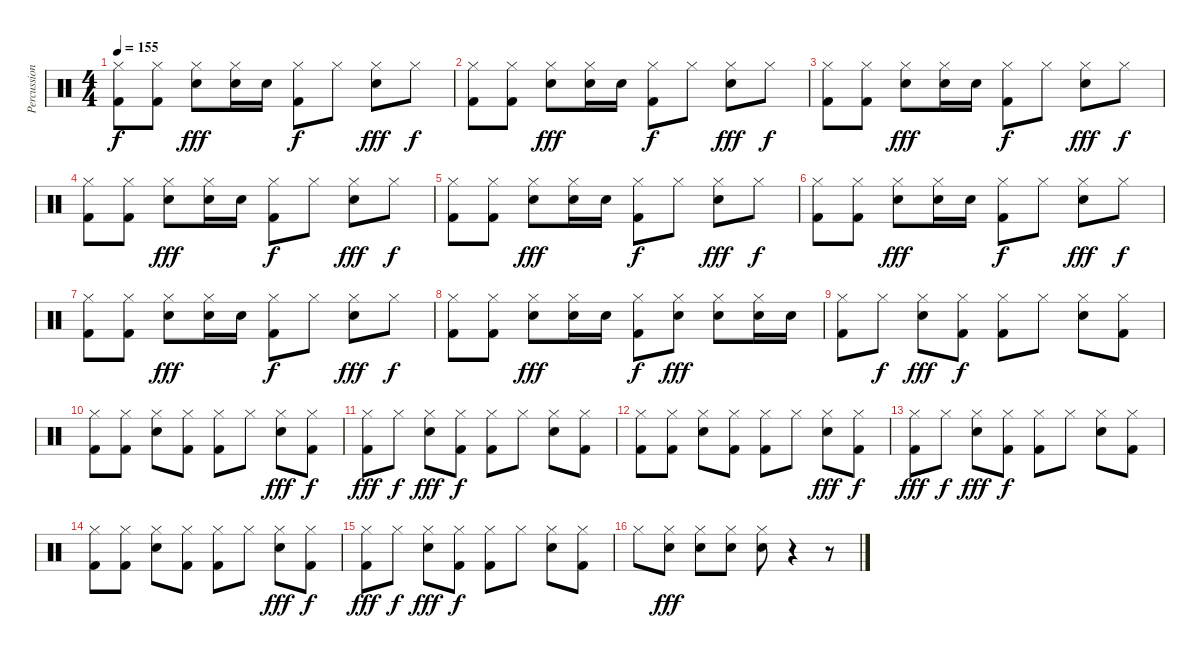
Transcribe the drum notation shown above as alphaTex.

\track ("Percussions" "Percussion") {instrument percussion}
\staff {score}
\articulation defaults
\ts (4 4)
\tempo 155
\clef neutral
\ks c
("Hi-Hat (closed)" "Kick (hit) 2").8{dy f} ("Hi-Hat (closed)" "Kick (hit) 2").8 ("Hi-Hat (closed)" "Electric Snare (hit)").8{dy fff} ("Hi-Hat (closed)" "Electric Snare (hit)").16 "Electric Snare (hit)".16 ("Hi-Hat (closed)" "Kick (hit) 2").8{dy f} "Hi-Hat (closed)".8 ("Hi-Hat (closed)" "Electric Snare (hit)").8{dy fff} "Hi-Hat (closed)".8{dy f} |
("Hi-Hat (closed)" "Kick (hit) 2").8 ("Hi-Hat (closed)" "Kick (hit) 2").8 ("Hi-Hat (closed)" "Electric Snare (hit)").8{dy fff} ("Hi-Hat (closed)" "Electric Snare (hit)").16 "Electric Snare (hit)".16 ("Hi-Hat (closed)" "Kick (hit) 2").8{dy f} "Hi-Hat (closed)".8 ("Hi-Hat (closed)" "Electric Snare (hit)").8{dy fff} "Hi-Hat (closed)".8{dy f} |
("Hi-Hat (closed)" "Kick (hit) 2").8 ("Hi-Hat (closed)" "Kick (hit) 2").8 ("Hi-Hat (closed)" "Electric Snare (hit)").8{dy fff} ("Hi-Hat (closed)" "Electric Snare (hit)").16 "Electric Snare (hit)".16 ("Hi-Hat (closed)" "Kick (hit) 2").8{dy f} "Hi-Hat (closed)".8 ("Hi-Hat (closed)" "Electric Snare (hit)").8{dy fff} "Hi-Hat (closed)".8{dy f} |
("Hi-Hat (closed)" "Kick (hit) 2").8 ("Hi-Hat (closed)" "Kick (hit) 2").8 ("Hi-Hat (closed)" "Electric Snare (hit)").8{dy fff} ("Hi-Hat (closed)" "Electric Snare (hit)").16 "Electric Snare (hit)".16 ("Hi-Hat (closed)" "Kick (hit) 2").8{dy f} "Hi-Hat (closed)".8 ("Hi-Hat (closed)" "Electric Snare (hit)").8{dy fff} "Hi-Hat (closed)".8{dy f} |
("Hi-Hat (closed)" "Kick (hit) 2").8 ("Hi-Hat (closed)" "Kick (hit) 2").8 ("Hi-Hat (closed)" "Electric Snare (hit)").8{dy fff} ("Hi-Hat (closed)" "Electric Snare (hit)").16 "Electric Snare (hit)".16 ("Hi-Hat (closed)" "Kick (hit) 2").8{dy f} "Hi-Hat (closed)".8 ("Hi-Hat (closed)" "Electric Snare (hit)").8{dy fff} "Hi-Hat (closed)".8{dy f} |
("Hi-Hat (closed)" "Kick (hit) 2").8 ("Hi-Hat (closed)" "Kick (hit) 2").8 ("Hi-Hat (closed)" "Electric Snare (hit)").8{dy fff} ("Hi-Hat (closed)" "Electric Snare (hit)").16 "Electric Snare (hit)".16 ("Hi-Hat (closed)" "Kick (hit) 2").8{dy f} "Hi-Hat (closed)".8 ("Hi-Hat (closed)" "Electric Snare (hit)").8{dy fff} "Hi-Hat (closed)".8{dy f} |
("Hi-Hat (closed)" "Kick (hit) 2").8 ("Hi-Hat (closed)" "Kick (hit) 2").8 ("Hi-Hat (closed)" "Electric Snare (hit)").8{dy fff} ("Hi-Hat (closed)" "Electric Snare (hit)").16 "Electric Snare (hit)".16 ("Hi-Hat (closed)" "Kick (hit) 2").8{dy f} "Hi-Hat (closed)".8 ("Hi-Hat (closed)" "Electric Snare (hit)").8{dy fff} "Hi-Hat (closed)".8{dy f} |
("Hi-Hat (closed)" "Kick (hit) 2").8 ("Hi-Hat (closed)" "Kick (hit) 2").8 ("Hi-Hat (closed)" "Electric Snare (hit)").8{dy fff} ("Hi-Hat (closed)" "Electric Snare (hit)").16 "Electric Snare (hit)".16 ("Hi-Hat (closed)" "Kick (hit) 2").8{dy f} ("Hi-Hat (closed)" "Electric Snare (hit)").8{dy fff} ("Hi-Hat (closed)" "Electric Snare (hit)").8 ("Hi-Hat (closed)" "Electric Snare (hit)").16 "Electric Snare (hit)".16 |
("Hi-Hat (closed)" "Kick (hit) 2").8 "Hi-Hat (closed)".8{dy f} ("Hi-Hat (closed)" "Electric Snare (hit)").8{dy fff} ("Hi-Hat (closed)" "Kick (hit) 2").8{dy f} ("Hi-Hat (closed)" "Kick (hit) 2").8 "Hi-Hat (closed)".8 ("Hi-Hat (closed)" "Electric Snare (hit)").8 ("Hi-Hat (closed)" "Kick (hit) 2").8 |
("Hi-Hat (closed)" "Kick (hit) 2").8 ("Hi-Hat (closed)" "Kick (hit) 2").8 ("Hi-Hat (closed)" "Electric Snare (hit)").8 ("Hi-Hat (closed)" "Kick (hit) 2").8 ("Hi-Hat (closed)" "Kick (hit) 2").8 "Hi-Hat (closed)".8 ("Hi-Hat (closed)" "Electric Snare (hit)").8{dy fff} ("Hi-Hat (closed)" "Kick (hit) 2").8{dy f} |
("Hi-Hat (closed)" "Kick (hit) 2").8{dy fff} "Hi-Hat (closed)".8{dy f} ("Hi-Hat (closed)" "Electric Snare (hit)").8{dy fff} ("Hi-Hat (closed)" "Kick (hit) 2").8{dy f} ("Hi-Hat (closed)" "Kick (hit) 2").8 "Hi-Hat (closed)".8 ("Hi-Hat (closed)" "Electric Snare (hit)").8 ("Hi-Hat (closed)" "Kick (hit) 2").8 |
("Hi-Hat (closed)" "Kick (hit) 2").8 ("Hi-Hat (closed)" "Kick (hit) 2").8 ("Hi-Hat (closed)" "Electric Snare (hit)").8 ("Hi-Hat (closed)" "Kick (hit) 2").8 ("Hi-Hat (closed)" "Kick (hit) 2").8 "Hi-Hat (closed)".8 ("Hi-Hat (closed)" "Electric Snare (hit)").8{dy fff} ("Hi-Hat (closed)" "Kick (hit) 2").8{dy f} |
("Hi-Hat (closed)" "Kick (hit) 2").8{dy fff} "Hi-Hat (closed)".8{dy f} ("Hi-Hat (closed)" "Electric Snare (hit)").8{dy fff} ("Hi-Hat (closed)" "Kick (hit) 2").8{dy f} ("Hi-Hat (closed)" "Kick (hit) 2").8 "Hi-Hat (closed)".8 ("Hi-Hat (closed)" "Electric Snare (hit)").8 ("Hi-Hat (closed)" "Kick (hit) 2").8 |
("Hi-Hat (closed)" "Kick (hit) 2").8 ("Hi-Hat (closed)" "Kick (hit) 2").8 ("Hi-Hat (closed)" "Electric Snare (hit)").8 ("Hi-Hat (closed)" "Kick (hit) 2").8 ("Hi-Hat (closed)" "Kick (hit) 2").8 "Hi-Hat (closed)".8 ("Hi-Hat (closed)" "Electric Snare (hit)").8{dy fff} ("Hi-Hat (closed)" "Kick (hit) 2").8{dy f} |
("Hi-Hat (closed)" "Kick (hit) 2").8{dy fff} "Hi-Hat (closed)".8{dy f} ("Hi-Hat (closed)" "Electric Snare (hit)").8{dy fff} ("Hi-Hat (closed)" "Kick (hit) 2").8{dy f} ("Hi-Hat (closed)" "Kick (hit) 2").8 "Hi-Hat (closed)".8 ("Hi-Hat (closed)" "Electric Snare (hit)").8 ("Hi-Hat (closed)" "Kick (hit) 2").8 |
"Hi-Hat (closed)".8 ("Hi-Hat (closed)" "Electric Snare (hit)").8{dy fff} ("Hi-Hat (closed)" "Electric Snare (hit)").8 ("Hi-Hat (closed)" "Electric Snare (hit)").8 ("Hi-Hat (closed)" "Electric Snare (hit)").8 r.4 r.8
